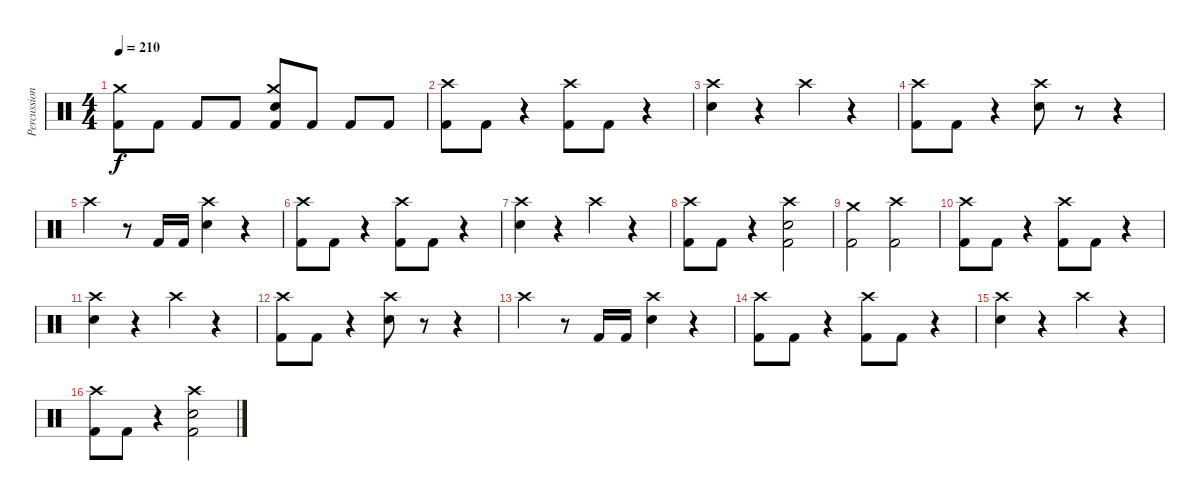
\track ("Percussions" "Percussion") {instrument percussion}
\staff {score}
\articulation defaults
\ts (4 4)
\tempo 210
\clef neutral
\ks c
("Kick (hit) 2" "Crash medium (hit)").8{dy f} "Kick (hit) 2".8 "Kick (hit) 2".8 "Kick (hit) 2".8 ("Kick (hit) 2" "Electric Snare (hit)" "Crash medium (hit)").8 "Kick (hit) 2".8 "Kick (hit) 2".8 "Kick (hit) 2".8 |
("Kick (hit) 2" "Crash high (hit)").8 "Kick (hit) 2".8 r.4 ("Kick (hit) 2" "Crash high (hit)").8 "Kick (hit) 2".8 r.4 |
("Electric Snare (hit)" "Crash high (hit)").4 r.4 "Crash high (hit)".4 r.4 |
("Kick (hit) 2" "Crash high (hit)").8 "Kick (hit) 2".8 r.4 ("Electric Snare (hit)" "Crash high (hit)").8 r.8 r.4 |
"Crash high (hit)".4 r.8 "Kick (hit) 2".16 "Kick (hit) 2".16 ("Electric Snare (hit)" "Crash high (hit)").4 r.4 |
("Kick (hit) 2" "Crash high (hit)").8 "Kick (hit) 2".8 r.4 ("Kick (hit) 2" "Crash high (hit)").8 "Kick (hit) 2".8 r.4 |
("Electric Snare (hit)" "Crash high (hit)").4 r.4 "Crash high (hit)".4 r.4 |
("Kick (hit) 2" "Crash high (hit)").8 "Kick (hit) 2".8 r.4 ("Kick (hit) 2" "Electric Snare (hit)" "Crash high (hit)").2 |
("Kick (hit) 2" "Crash medium (hit)").2 ("Kick (hit) 2" "Crash high (hit)").2 |
("Kick (hit) 2" "Crash high (hit)").8 "Kick (hit) 2".8 r.4 ("Kick (hit) 2" "Crash high (hit)").8 "Kick (hit) 2".8 r.4 |
("Electric Snare (hit)" "Crash high (hit)").4 r.4 "Crash high (hit)".4 r.4 |
("Kick (hit) 2" "Crash high (hit)").8 "Kick (hit) 2".8 r.4 ("Electric Snare (hit)" "Crash high (hit)").8 r.8 r.4 |
"Crash high (hit)".4 r.8 "Kick (hit) 2".16 "Kick (hit) 2".16 ("Electric Snare (hit)" "Crash high (hit)").4 r.4 |
("Kick (hit) 2" "Crash high (hit)").8 "Kick (hit) 2".8 r.4 ("Kick (hit) 2" "Crash high (hit)").8 "Kick (hit) 2".8 r.4 |
("Electric Snare (hit)" "Crash high (hit)").4 r.4 "Crash high (hit)".4 r.4 |
("Kick (hit) 2" "Crash high (hit)").8 "Kick (hit) 2".8 r.4 ("Kick (hit) 2" "Electric Snare (hit)" "Crash high (hit)").2
